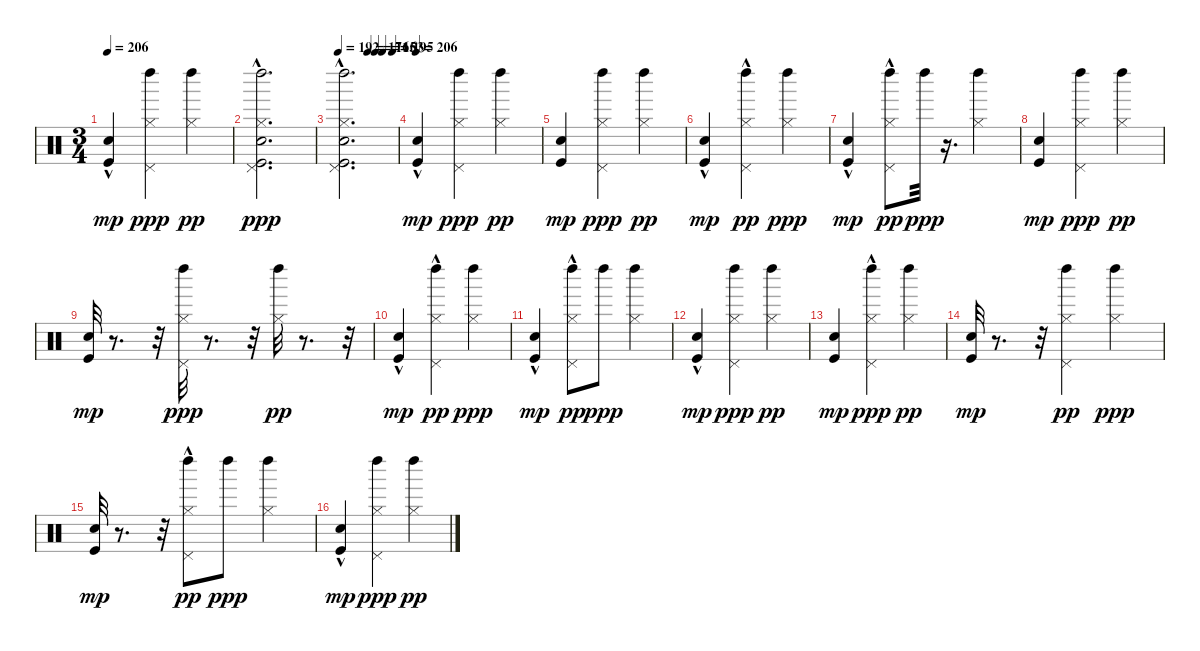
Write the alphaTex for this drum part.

\track "" {instrument percussion}
\staff {score}
\articulation defaults
\ts (3 4)
\tempo 206
\clef neutral
\ks c
("Kick (hit)" "Snare (hit)"{hac}).4{dy mp} ("Pedal Hi-Hat (hit)" "Hi-Hat (closed)" "Left Maraca (hit)").4{dy ppp} ("Hi-Hat (closed)" "Left Maraca (hit)").4{dy pp} |
("Kick (hit)" "Snare (hit)"{hac} "Pedal Hi-Hat (hit)"{hac} "Hi-Hat (closed)"{hac} "Left Maraca (hit)"{hac}).2{d dy ppp} |
\tempo 192
\tempo (171 0.5)
\tempo (165 0.625)
\tempo (163 0.75)
\tempo (195 0.9166666666666666)
("Kick (hit)"{hac} "Snare (hit)"{hac} "Pedal Hi-Hat (hit)" "Hi-Hat (closed)" "Left Maraca (hit)").2{d} |
\tempo 206
("Kick (hit)"{hac} "Snare (hit)").4{dy mp} ("Pedal Hi-Hat (hit)" "Hi-Hat (closed)" "Left Maraca (hit)").4{dy ppp} ("Hi-Hat (closed)" "Left Maraca (hit)").4{dy pp} |
("Kick (hit)" "Snare (hit)").4{dy mp} ("Pedal Hi-Hat (hit)" "Hi-Hat (closed)" "Left Maraca (hit)").4{dy ppp} ("Hi-Hat (closed)" "Left Maraca (hit)").4{dy pp} |
("Kick (hit)"{hac} "Snare (hit)"{hac}).4{dy mp} ("Pedal Hi-Hat (hit)"{hac} "Hi-Hat (closed)" "Left Maraca (hit)").4{dy pp} ("Hi-Hat (closed)" "Left Maraca (hit)").4{dy ppp} |
("Kick (hit)" "Snare (hit)"{hac}).4{dy mp} ("Pedal Hi-Hat (hit)"{hac} "Hi-Hat (closed)" "Left Maraca (hit)").8{dy pp} "Left Maraca (hit)".32{dy ppp} r.16{d} ("Hi-Hat (closed)" "Left Maraca (hit)").4 |
("Kick (hit)" "Snare (hit)").4{dy mp} ("Pedal Hi-Hat (hit)" "Hi-Hat (closed)" "Left Maraca (hit)").4{dy ppp} ("Hi-Hat (closed)" "Left Maraca (hit)").4{dy pp} |
("Kick (hit)" "Snare (hit)").32{dy mp} r.8{d} r.32 ("Pedal Hi-Hat (hit)" "Hi-Hat (closed)" "Left Maraca (hit)").32{dy ppp} r.8{d} r.32 ("Hi-Hat (closed)" "Left Maraca (hit)").32{dy pp} r.8{d} r.32 |
("Kick (hit)"{hac} "Snare (hit)"{hac}).4{dy mp} ("Pedal Hi-Hat (hit)"{hac} "Hi-Hat (closed)" "Left Maraca (hit)").4{dy pp} ("Hi-Hat (closed)" "Left Maraca (hit)").4{dy ppp} |
("Kick (hit)"{hac} "Snare (hit)"{hac}).4{dy mp} ("Pedal Hi-Hat (hit)"{hac} "Hi-Hat (closed)" "Left Maraca (hit)").8{dy pp} "Left Maraca (hit)".8{dy ppp} ("Hi-Hat (closed)" "Left Maraca (hit)").4 |
("Kick (hit)" "Snare (hit)"{hac}).4{dy mp} ("Pedal Hi-Hat (hit)" "Hi-Hat (closed)" "Left Maraca (hit)").4{dy ppp} ("Hi-Hat (closed)" "Left Maraca (hit)").4{dy pp} |
("Kick (hit)" "Snare (hit)").4{dy mp} ("Pedal Hi-Hat (hit)"{hac} "Hi-Hat (closed)" "Left Maraca (hit)").4{dy ppp} ("Hi-Hat (closed)" "Left Maraca (hit)").4{dy pp} |
("Kick (hit)" "Snare (hit)").32{dy mp} r.8{d} r.32 ("Pedal Hi-Hat (hit)" "Hi-Hat (closed)" "Left Maraca (hit)").4{dy pp} ("Hi-Hat (closed)" "Left Maraca (hit)").4{dy ppp} |
("Kick (hit)" "Snare (hit)").32{dy mp} r.8{d} r.32 ("Pedal Hi-Hat (hit)"{hac} "Hi-Hat (closed)" "Left Maraca (hit)").8{dy pp} "Left Maraca (hit)".8{dy ppp} ("Hi-Hat (closed)" "Left Maraca (hit)").4 |
("Kick (hit)" "Snare (hit)"{hac}).4{dy mp} ("Pedal Hi-Hat (hit)" "Hi-Hat (closed)" "Left Maraca (hit)").4{dy ppp} ("Hi-Hat (closed)" "Left Maraca (hit)").4{dy pp}
